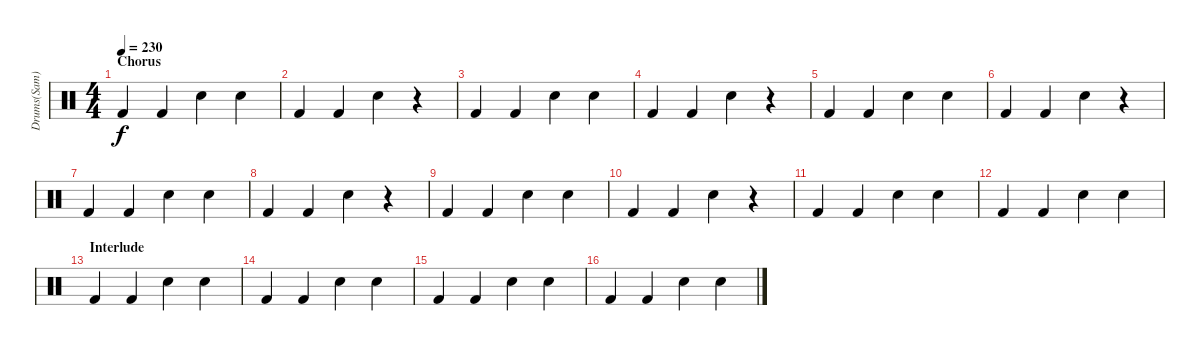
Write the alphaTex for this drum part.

\track ("Drums(Sam)" "Drums(Sam)") {instrument percussion}
\staff {score}
\articulation defaults
\ts (4 4)
\section ("" "Chorus")
\tempo 230
\clef neutral
\ks c "Kick (hit) 2".4{dy f} "Kick (hit) 2".4 "Snare (hit) 2".4 "Snare (hit) 2".4
|
"Kick (hit) 2".4 "Kick (hit) 2".4 "Snare (hit) 2".4 r.4 |
"Kick (hit) 2".4 "Kick (hit) 2".4 "Snare (hit) 2".4 "Snare (hit) 2".4 |
"Kick (hit) 2".4 "Kick (hit) 2".4 "Snare (hit) 2".4 r.4 |
"Kick (hit) 2".4 "Kick (hit) 2".4 "Snare (hit) 2".4 "Snare (hit) 2".4 |
"Kick (hit) 2".4 "Kick (hit) 2".4 "Snare (hit) 2".4 r.4 |
"Kick (hit) 2".4 "Kick (hit) 2".4 "Snare (hit) 2".4 "Snare (hit) 2".4 |
"Kick (hit) 2".4 "Kick (hit) 2".4 "Snare (hit) 2".4 r.4 |
"Kick (hit) 2".4 "Kick (hit) 2".4 "Snare (hit) 2".4 "Snare (hit) 2".4 |
"Kick (hit) 2".4 "Kick (hit) 2".4 "Snare (hit) 2".4 r.4 |
"Kick (hit) 2".4 "Kick (hit) 2".4 "Snare (hit) 2".4 "Snare (hit) 2".4 |
"Kick (hit) 2".4 "Kick (hit) 2".4 "Snare (hit) 2".4 "Snare (hit) 2".4 |
\section ("" "Interlude")
"Kick (hit) 2".4 "Kick (hit) 2".4 "Snare (hit) 2".4 "Snare (hit) 2".4 |
"Kick (hit) 2".4 "Kick (hit) 2".4 "Snare (hit) 2".4 "Snare (hit) 2".4 |
"Kick (hit) 2".4 "Kick (hit) 2".4 "Snare (hit) 2".4 "Snare (hit) 2".4 |
"Kick (hit) 2".4 "Kick (hit) 2".4 "Snare (hit) 2".4 "Snare (hit) 2".4
